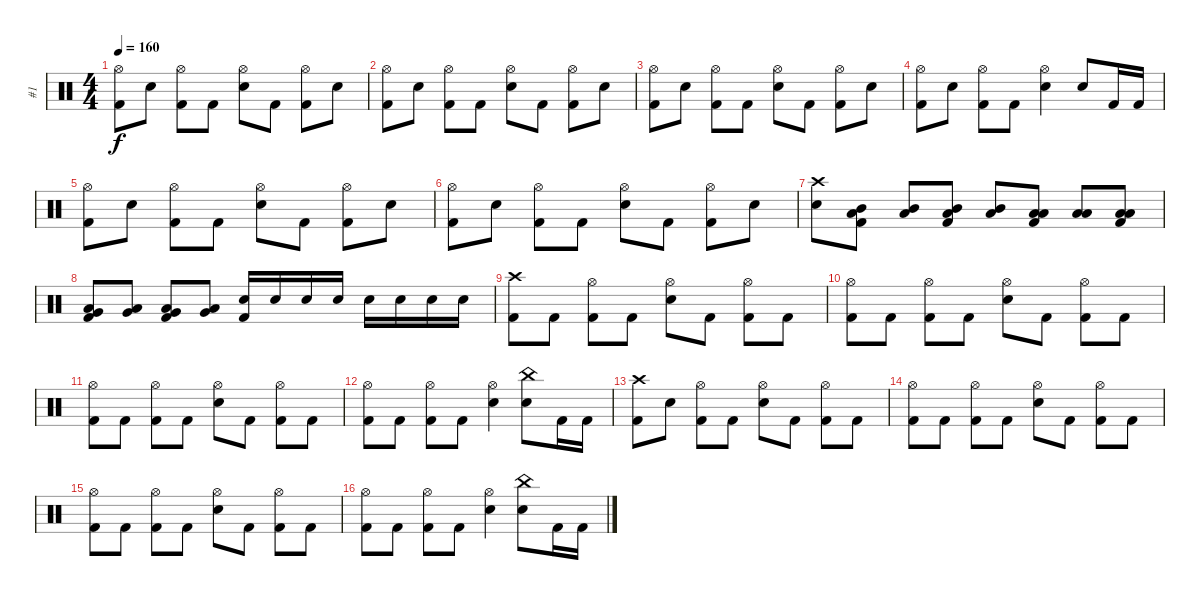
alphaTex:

\track ("#1" "#1") {instrument percussion}
\staff {score}
\articulation defaults
\ts (4 4)
\tempo 160
\clef neutral
\ks c
("Kick (hit) 2" "Hi-Hat (open)").8{dy f} "Electric Snare (hit)".8 ("Kick (hit) 2" "Hi-Hat (open)").8 "Kick (hit) 2".8 ("Electric Snare (hit)" "Hi-Hat (open)").8 "Kick (hit) 2".8 ("Kick (hit) 2" "Hi-Hat (open)").8 "Electric Snare (hit)".8 |
("Kick (hit) 2" "Hi-Hat (open)").8 "Electric Snare (hit)".8 ("Kick (hit) 2" "Hi-Hat (open)").8 "Kick (hit) 2".8 ("Electric Snare (hit)" "Hi-Hat (open)").8 "Kick (hit) 2".8 ("Kick (hit) 2" "Hi-Hat (open)").8 "Electric Snare (hit)".8 |
("Kick (hit) 2" "Hi-Hat (open)").8 "Electric Snare (hit)".8 ("Kick (hit) 2" "Hi-Hat (open)").8 "Kick (hit) 2".8 ("Electric Snare (hit)" "Hi-Hat (open)").8 "Kick (hit) 2".8 ("Kick (hit) 2" "Hi-Hat (open)").8 "Electric Snare (hit)".8 |
("Kick (hit) 2" "Hi-Hat (open)").8 "Electric Snare (hit)".8 ("Kick (hit) 2" "Hi-Hat (open)").8 "Kick (hit) 2".8 ("Electric Snare (hit)" "Hi-Hat (open)").4 "Electric Snare (hit)".8 "Kick (hit) 2".16 "Kick (hit) 2".16 |
("Kick (hit) 2" "Hi-Hat (open)").8 "Electric Snare (hit)".8 ("Kick (hit) 2" "Hi-Hat (open)").8 "Kick (hit) 2".8 ("Electric Snare (hit)" "Hi-Hat (open)").8 "Kick (hit) 2".8 ("Kick (hit) 2" "Hi-Hat (open)").8 "Electric Snare (hit)".8 |
("Kick (hit) 2" "Hi-Hat (open)").8 "Electric Snare (hit)".8 ("Kick (hit) 2" "Hi-Hat (open)").8 "Kick (hit) 2".8 ("Electric Snare (hit)" "Hi-Hat (open)").8 "Kick (hit) 2".8 ("Kick (hit) 2" "Hi-Hat (open)").8 "Electric Snare (hit)".8 |
("Electric Snare (hit)" "Crash high (hit)").8 ("Mid Tom (hit)" "Kick (hit) 2" "Low Floor Tom (hit)").8 ("Mid Tom (hit)" "Low Floor Tom (hit)").8 ("Mid Tom (hit)" "Kick (hit) 2" "Low Floor Tom (hit)").8 ("Mid Tom (hit)" "Low Floor Tom (hit)").8 ("Low Tom (hit)" "Kick (hit) 2" "Low Floor Tom (hit)").8 ("Low Tom (hit)" "Low Floor Tom (hit)").8 ("Low Tom (hit)" "Kick (hit) 2" "Low Floor Tom (hit)").8 |
("Very Low Tom (hit)" "Kick (hit) 2" "Low Floor Tom (hit)").8 ("Very Low Tom (hit)" "Low Floor Tom (hit)").8 ("Very Low Tom (hit)" "Kick (hit) 2" "Low Floor Tom (hit)").8 ("Very Low Tom (hit)" "Low Floor Tom (hit)").8 ("Electric Snare (hit)" "Kick (hit) 2").16 "Electric Snare (hit)".16 "Electric Snare (hit)".16 "Electric Snare (hit)".16 "Electric Snare (hit)".16 "Electric Snare (hit)".16 "Electric Snare (hit)".16 "Electric Snare (hit)".16 |
("Kick (hit) 2" "Crash high (hit)").8 "Kick (hit) 2".8 ("Kick (hit) 2" "Hi-Hat (open)").8 "Kick (hit) 2".8 ("Electric Snare (hit)" "Hi-Hat (open)").8 "Kick (hit) 2".8 ("Kick (hit) 2" "Hi-Hat (open)").8 "Kick (hit) 2".8 |
("Kick (hit) 2" "Hi-Hat (open)").8 "Kick (hit) 2".8 ("Kick (hit) 2" "Hi-Hat (open)").8 "Kick (hit) 2".8 ("Electric Snare (hit)" "Hi-Hat (open)").8 "Kick (hit) 2".8 ("Kick (hit) 2" "Hi-Hat (open)").8 "Kick (hit) 2".8 |
("Kick (hit) 2" "Hi-Hat (open)").8 "Kick (hit) 2".8 ("Kick (hit) 2" "Hi-Hat (open)").8 "Kick (hit) 2".8 ("Electric Snare (hit)" "Hi-Hat (open)").8 "Kick (hit) 2".8 ("Kick (hit) 2" "Hi-Hat (open)").8 "Kick (hit) 2".8 |
("Kick (hit) 2" "Hi-Hat (open)").8 "Kick (hit) 2".8 ("Kick (hit) 2" "Hi-Hat (open)").8 "Kick (hit) 2".8 ("Electric Snare (hit)" "Hi-Hat (open)").4 ("Electric Snare (hit)" "China (hit)").8 "Kick (hit) 2".16 "Kick (hit) 2".16 |
("Kick (hit) 2" "Crash high (hit)").8 "Electric Snare (hit)".8 ("Kick (hit) 2" "Hi-Hat (open)").8 "Kick (hit) 2".8 ("Electric Snare (hit)" "Hi-Hat (open)").8 "Kick (hit) 2".8 ("Kick (hit) 2" "Hi-Hat (open)").8 "Kick (hit) 2".8 |
("Kick (hit) 2" "Hi-Hat (open)").8 "Kick (hit) 2".8 ("Kick (hit) 2" "Hi-Hat (open)").8 "Kick (hit) 2".8 ("Electric Snare (hit)" "Hi-Hat (open)").8 "Kick (hit) 2".8 ("Kick (hit) 2" "Hi-Hat (open)").8 "Kick (hit) 2".8 |
("Kick (hit) 2" "Hi-Hat (open)").8 "Kick (hit) 2".8 ("Kick (hit) 2" "Hi-Hat (open)").8 "Kick (hit) 2".8 ("Electric Snare (hit)" "Hi-Hat (open)").8 "Kick (hit) 2".8 ("Kick (hit) 2" "Hi-Hat (open)").8 "Kick (hit) 2".8 |
("Kick (hit) 2" "Hi-Hat (open)").8 "Kick (hit) 2".8 ("Kick (hit) 2" "Hi-Hat (open)").8 "Kick (hit) 2".8 ("Electric Snare (hit)" "Hi-Hat (open)").4 ("Electric Snare (hit)" "China (hit)").8 "Kick (hit) 2".16 "Kick (hit) 2".16
